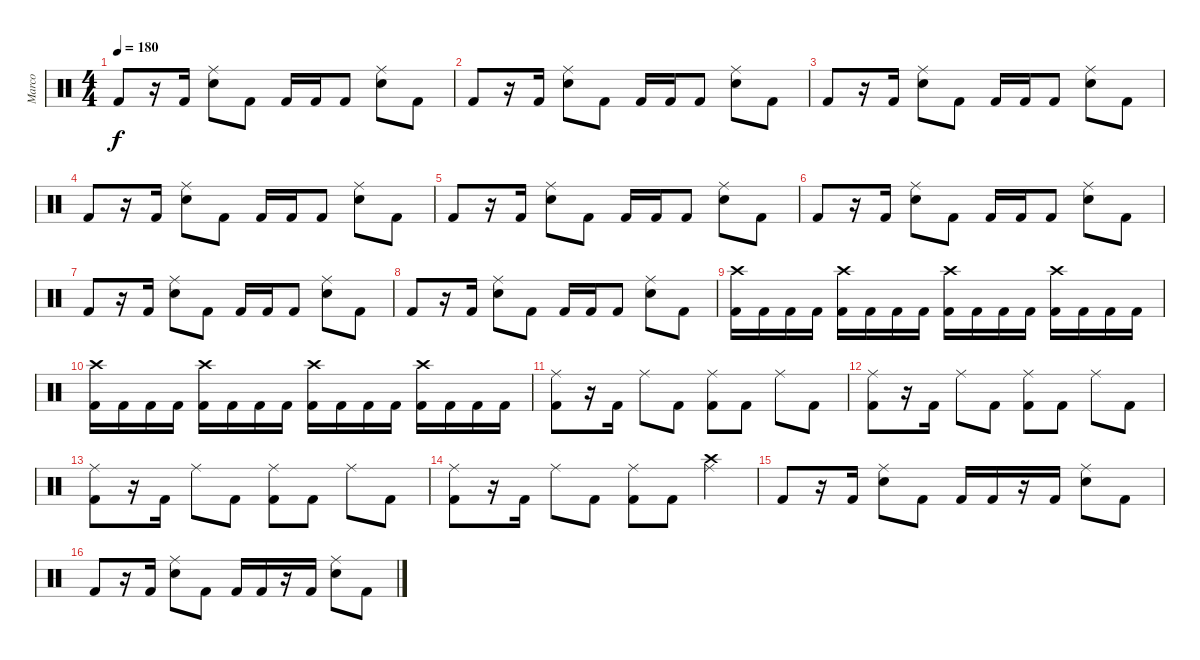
\track ("Marco" "Marco") {instrument percussion}
\staff {score}
\articulation defaults
\ts (4 4)
\tempo 180
\clef neutral
\ks c "Kick (hit) 2".8{dy f}
r.16 "Kick (hit) 2".16 ("Electric Snare (hit)" "Ride (middle)").8 "Kick (hit) 2".8 "Kick (hit) 2".16 "Kick (hit) 2".16 "Kick (hit) 2".8 ("Electric Snare (hit)" "Ride (middle)").8 "Kick (hit) 2".8 |
"Kick (hit) 2".8 r.16 "Kick (hit) 2".16 ("Electric Snare (hit)" "Ride (middle)").8 "Kick (hit) 2".8 "Kick (hit) 2".16 "Kick (hit) 2".16 "Kick (hit) 2".8 ("Electric Snare (hit)" "Ride (middle)").8 "Kick (hit) 2".8 |
"Kick (hit) 2".8 r.16 "Kick (hit) 2".16 ("Electric Snare (hit)" "Ride (middle)").8 "Kick (hit) 2".8 "Kick (hit) 2".16 "Kick (hit) 2".16 "Kick (hit) 2".8 ("Electric Snare (hit)" "Ride (middle)").8 "Kick (hit) 2".8 |
"Kick (hit) 2".8 r.16 "Kick (hit) 2".16 ("Electric Snare (hit)" "Ride (middle)").8 "Kick (hit) 2".8 "Kick (hit) 2".16 "Kick (hit) 2".16 "Kick (hit) 2".8 ("Electric Snare (hit)" "Ride (middle)").8 "Kick (hit) 2".8 |
"Kick (hit) 2".8 r.16 "Kick (hit) 2".16 ("Electric Snare (hit)" "Ride (middle)").8 "Kick (hit) 2".8 "Kick (hit) 2".16 "Kick (hit) 2".16 "Kick (hit) 2".8 ("Electric Snare (hit)" "Ride (middle)").8 "Kick (hit) 2".8 |
"Kick (hit) 2".8 r.16 "Kick (hit) 2".16 ("Electric Snare (hit)" "Ride (middle)").8 "Kick (hit) 2".8 "Kick (hit) 2".16 "Kick (hit) 2".16 "Kick (hit) 2".8 ("Electric Snare (hit)" "Ride (middle)").8 "Kick (hit) 2".8 |
"Kick (hit) 2".8 r.16 "Kick (hit) 2".16 ("Electric Snare (hit)" "Ride (middle)").8 "Kick (hit) 2".8 "Kick (hit) 2".16 "Kick (hit) 2".16 "Kick (hit) 2".8 ("Electric Snare (hit)" "Ride (middle)").8 "Kick (hit) 2".8 |
"Kick (hit) 2".8 r.16 "Kick (hit) 2".16 ("Electric Snare (hit)" "Ride (middle)").8 "Kick (hit) 2".8 "Kick (hit) 2".16 "Kick (hit) 2".16 "Kick (hit) 2".8 ("Electric Snare (hit)" "Ride (middle)").8 "Kick (hit) 2".8 |
("Kick (hit) 2" "Crash high (hit)").16 "Kick (hit) 2".16 "Kick (hit) 2".16 "Kick (hit) 2".16 ("Kick (hit) 2" "Crash high (hit)").16 "Kick (hit) 2".16 "Kick (hit) 2".16 "Kick (hit) 2".16 ("Kick (hit) 2" "Crash high (hit)").16 "Kick (hit) 2".16 "Kick (hit) 2".16 "Kick (hit) 2".16 ("Kick (hit) 2" "Crash high (hit)").16 "Kick (hit) 2".16 "Kick (hit) 2".16 "Kick (hit) 2".16 |
("Kick (hit) 2" "Crash high (hit)").16 "Kick (hit) 2".16 "Kick (hit) 2".16 "Kick (hit) 2".16 ("Kick (hit) 2" "Crash high (hit)").16 "Kick (hit) 2".16 "Kick (hit) 2".16 "Kick (hit) 2".16 ("Kick (hit) 2" "Crash high (hit)").16 "Kick (hit) 2".16 "Kick (hit) 2".16 "Kick (hit) 2".16 ("Kick (hit) 2" "Crash high (hit)").16 "Kick (hit) 2".16 "Kick (hit) 2".16 "Kick (hit) 2".16 |
("Kick (hit) 2" "Ride (middle)").8 r.16 "Kick (hit) 2".16 "Ride (middle)".8 "Kick (hit) 2".8 ("Kick (hit) 2" "Ride (middle)").8 "Kick (hit) 2".8 "Ride (middle)".8 "Kick (hit) 2".8 |
("Kick (hit) 2" "Ride (middle)").8 r.16 "Kick (hit) 2".16 "Ride (middle)".8 "Kick (hit) 2".8 ("Kick (hit) 2" "Ride (middle)").8 "Kick (hit) 2".8 "Ride (middle)".8 "Kick (hit) 2".8 |
("Kick (hit) 2" "Ride (middle)").8 r.16 "Kick (hit) 2".16 "Ride (middle)".8 "Kick (hit) 2".8 ("Kick (hit) 2" "Ride (middle)").8 "Kick (hit) 2".8 "Ride (middle)".8 "Kick (hit) 2".8 |
("Kick (hit) 2" "Ride (middle)").8 r.16 "Kick (hit) 2".16 "Ride (middle)".8 "Kick (hit) 2".8 ("Kick (hit) 2" "Ride (middle)").8 "Kick (hit) 2".8 ("Ride (middle)" "Crash high (hit)").4 |
"Kick (hit) 2".8 r.16 "Kick (hit) 2".16 ("Electric Snare (hit)" "Ride (middle)").8 "Kick (hit) 2".8 "Kick (hit) 2".16 "Kick (hit) 2".16 r.16 "Kick (hit) 2".16 ("Electric Snare (hit)" "Ride (middle)").8 "Kick (hit) 2".8 |
"Kick (hit) 2".8 r.16 "Kick (hit) 2".16 ("Electric Snare (hit)" "Ride (middle)").8 "Kick (hit) 2".8 "Kick (hit) 2".16 "Kick (hit) 2".16 r.16 "Kick (hit) 2".16 ("Electric Snare (hit)" "Ride (middle)").8 "Kick (hit) 2".8
